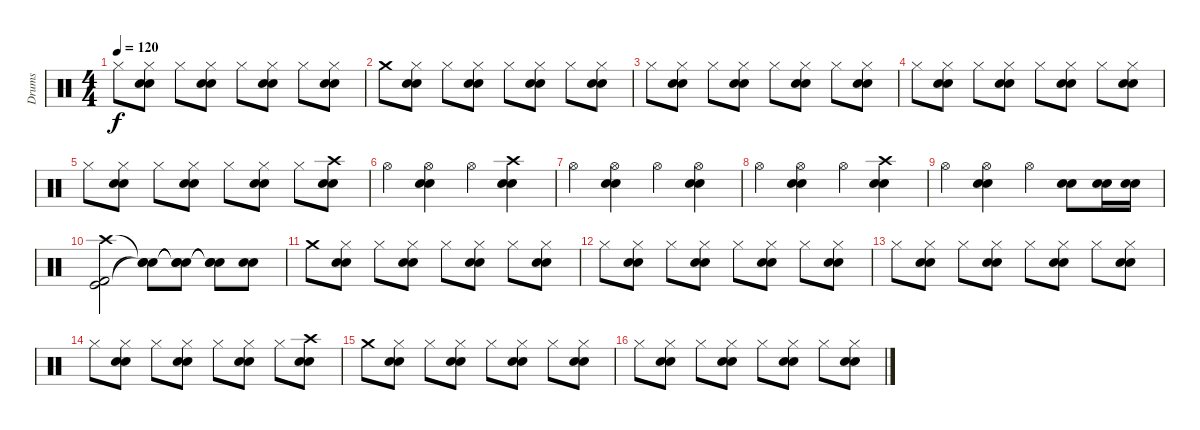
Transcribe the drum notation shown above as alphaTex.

\track ("Drums" "Drums") {instrument percussion}
\staff {score}
\articulation defaults
\ts (4 4)
\tempo 120
\clef neutral
\ks c "Hi-Hat (closed)".8{dy f}
("Hi-Hat (closed)" "Electric Snare (hit)" "Snare (hit) 2").8 "Hi-Hat (closed)".8 ("Hi-Hat (closed)" "Electric Snare (hit)" "Snare (hit) 2").8 "Hi-Hat (closed)".8 ("Hi-Hat (closed)" "Electric Snare (hit)" "Snare (hit) 2").8 "Hi-Hat (closed)".8 ("Hi-Hat (closed)" "Electric Snare (hit)" "Snare (hit) 2").8 |
"Crash medium (hit)".8 ("Hi-Hat (closed)" "Electric Snare (hit)" "Snare (hit) 2").8 "Hi-Hat (closed)".8 ("Hi-Hat (closed)" "Electric Snare (hit)" "Snare (hit) 2").8 "Hi-Hat (closed)".8 ("Hi-Hat (closed)" "Electric Snare (hit)" "Snare (hit) 2").8 "Hi-Hat (closed)".8 ("Hi-Hat (closed)" "Electric Snare (hit)" "Snare (hit) 2").8 |
"Hi-Hat (closed)".8 ("Hi-Hat (closed)" "Electric Snare (hit)" "Snare (hit) 2").8 "Hi-Hat (closed)".8 ("Hi-Hat (closed)" "Electric Snare (hit)" "Snare (hit) 2").8 "Hi-Hat (closed)".8 ("Hi-Hat (closed)" "Electric Snare (hit)" "Snare (hit) 2").8 "Hi-Hat (closed)".8 ("Hi-Hat (closed)" "Electric Snare (hit)" "Snare (hit) 2").8 |
"Hi-Hat (closed)".8 ("Hi-Hat (closed)" "Electric Snare (hit)" "Snare (hit) 2").8 "Hi-Hat (closed)".8 ("Hi-Hat (closed)" "Electric Snare (hit)" "Snare (hit) 2").8 "Hi-Hat (closed)".8 ("Hi-Hat (closed)" "Electric Snare (hit)" "Snare (hit) 2").8 "Hi-Hat (closed)".8 ("Hi-Hat (closed)" "Electric Snare (hit)" "Snare (hit) 2").8 |
"Hi-Hat (closed)".8 ("Hi-Hat (closed)" "Electric Snare (hit)" "Snare (hit) 2").8 "Hi-Hat (closed)".8 ("Hi-Hat (closed)" "Electric Snare (hit)" "Snare (hit) 2").8 "Hi-Hat (closed)".8 ("Hi-Hat (closed)" "Electric Snare (hit)" "Snare (hit) 2").8 "Hi-Hat (closed)".8 ("Crash high (hit)" "Electric Snare (hit)" "Snare (hit) 2").8 |
"Hi-Hat (open)".4 ("Hi-Hat (open)" "Electric Snare (hit)" "Snare (hit) 2").4 "Hi-Hat (open)".4 ("Crash high (hit)" "Electric Snare (hit)" "Snare (hit) 2").4 |
"Hi-Hat (open)".4 ("Hi-Hat (open)" "Electric Snare (hit)" "Snare (hit) 2").4 "Hi-Hat (open)".4 ("Hi-Hat (open)" "Electric Snare (hit)" "Snare (hit) 2").4 |
"Hi-Hat (open)".4 ("Hi-Hat (open)" "Electric Snare (hit)" "Snare (hit) 2").4 "Hi-Hat (open)".4 ("Crash high (hit)" "Electric Snare (hit)" "Snare (hit) 2").4 |
"Hi-Hat (open)".4 ("Hi-Hat (open)" "Electric Snare (hit)" "Snare (hit) 2").4 "Hi-Hat (open)".4 ("Electric Snare (hit)" "Snare (hit) 2").8 ("Electric Snare (hit)" "Snare (hit) 2").16 ("Electric Snare (hit)" "Snare (hit) 2").16 |
("Kick (hit) 2" "Kick (hit)" "Crash high (hit)").2 ("Electric Snare (hit)"{t} "Snare (hit) 2"{t} "Snare (hit)"{t}).8 ("Snare (hit)"{t} "Snare (hit)"{t} "Snare (hit)"{t}).8 ("Snare (hit)"{t} "Snare (hit)"{t} "Snare (hit)"{t}).8 ("Electric Snare (hit)" "Snare (hit) 2").8 |
"Crash medium (hit)".8 ("Hi-Hat (closed)" "Electric Snare (hit)" "Snare (hit) 2").8 "Hi-Hat (closed)".8 ("Hi-Hat (closed)" "Electric Snare (hit)" "Snare (hit) 2").8 "Hi-Hat (closed)".8 ("Hi-Hat (closed)" "Electric Snare (hit)" "Snare (hit) 2").8 "Hi-Hat (closed)".8 ("Hi-Hat (closed)" "Electric Snare (hit)" "Snare (hit) 2").8 |
"Hi-Hat (closed)".8 ("Hi-Hat (closed)" "Electric Snare (hit)" "Snare (hit) 2").8 "Hi-Hat (closed)".8 ("Hi-Hat (closed)" "Electric Snare (hit)" "Snare (hit) 2").8 "Hi-Hat (closed)".8 ("Hi-Hat (closed)" "Electric Snare (hit)" "Snare (hit) 2").8 "Hi-Hat (closed)".8 ("Hi-Hat (closed)" "Electric Snare (hit)" "Snare (hit) 2").8 |
"Hi-Hat (closed)".8 ("Hi-Hat (closed)" "Electric Snare (hit)" "Snare (hit) 2").8 "Hi-Hat (closed)".8 ("Hi-Hat (closed)" "Electric Snare (hit)" "Snare (hit) 2").8 "Hi-Hat (closed)".8 ("Hi-Hat (closed)" "Electric Snare (hit)" "Snare (hit) 2").8 "Hi-Hat (closed)".8 ("Hi-Hat (closed)" "Electric Snare (hit)" "Snare (hit) 2").8 |
"Hi-Hat (closed)".8 ("Hi-Hat (closed)" "Electric Snare (hit)" "Snare (hit) 2").8 "Hi-Hat (closed)".8 ("Hi-Hat (closed)" "Electric Snare (hit)" "Snare (hit) 2").8 "Hi-Hat (closed)".8 ("Hi-Hat (closed)" "Electric Snare (hit)" "Snare (hit) 2").8 "Hi-Hat (closed)".8 ("Crash high (hit)" "Electric Snare (hit)" "Snare (hit) 2").8 |
"Crash medium (hit)".8 ("Hi-Hat (closed)" "Electric Snare (hit)" "Snare (hit) 2").8 "Hi-Hat (closed)".8 ("Hi-Hat (closed)" "Electric Snare (hit)" "Snare (hit) 2").8 "Hi-Hat (closed)".8 ("Hi-Hat (closed)" "Electric Snare (hit)" "Snare (hit) 2").8 "Hi-Hat (closed)".8 ("Hi-Hat (closed)" "Electric Snare (hit)" "Snare (hit) 2").8 |
"Hi-Hat (closed)".8 ("Hi-Hat (closed)" "Electric Snare (hit)" "Snare (hit) 2").8 "Hi-Hat (closed)".8 ("Hi-Hat (closed)" "Electric Snare (hit)" "Snare (hit) 2").8 "Hi-Hat (closed)".8 ("Hi-Hat (closed)" "Electric Snare (hit)" "Snare (hit) 2").8 "Hi-Hat (closed)".8 ("Hi-Hat (closed)" "Electric Snare (hit)" "Snare (hit) 2").8
